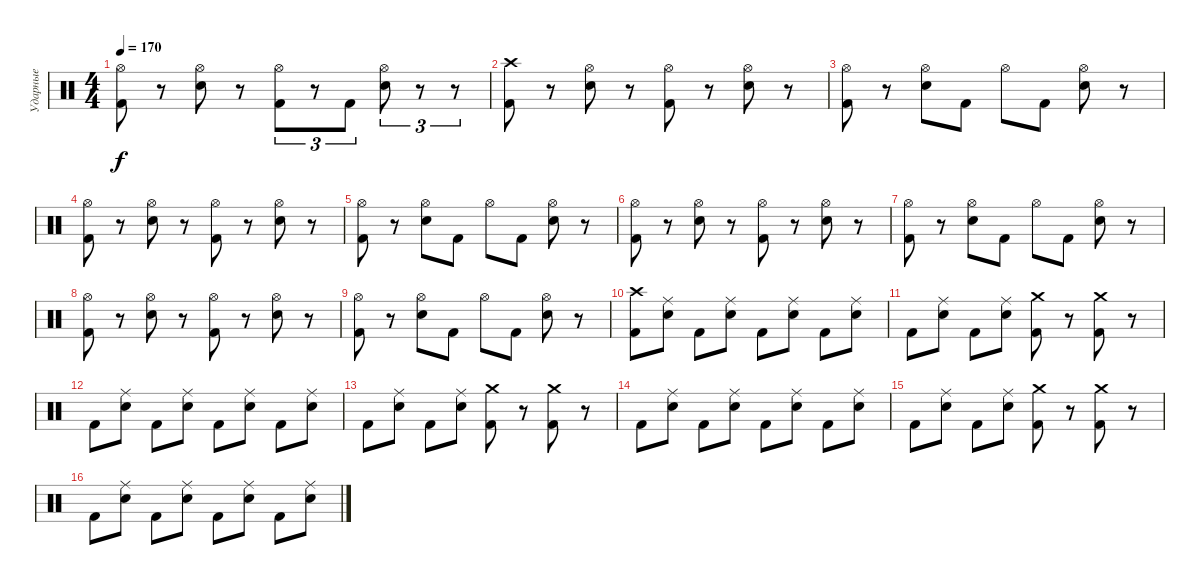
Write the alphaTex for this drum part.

\track ("Ударные" "Ударные") {instrument percussion}
\staff {score}
\articulation defaults
\ts (4 4)
\tempo 170
\clef neutral
\ks c
("Hi-Hat (open)" "Kick (hit) 2").8{dy f} r.8 ("Hi-Hat (open)" "Electric Snare (hit)").8 r.8 ("Hi-Hat (open)" "Kick (hit) 2").8{tu (3 2)} r.8{tu (3 2)} "Kick (hit) 2".8{tu (3 2)} ("Hi-Hat (open)" "Electric Snare (hit)").8{tu (3 2)} r.8{tu (3 2)} r.8{tu (3 2)} |
("Crash high (hit)" "Kick (hit) 2").8 r.8 ("Hi-Hat (open)" "Electric Snare (hit)").8 r.8 ("Hi-Hat (open)" "Kick (hit) 2").8 r.8 ("Hi-Hat (open)" "Electric Snare (hit)").8 r.8 |
("Hi-Hat (open)" "Kick (hit) 2").8 r.8 ("Hi-Hat (open)" "Electric Snare (hit)").8 "Kick (hit) 2".8 "Hi-Hat (open)".8 "Kick (hit) 2".8 ("Hi-Hat (open)" "Electric Snare (hit)").8 r.8 |
("Hi-Hat (open)" "Kick (hit) 2").8 r.8 ("Hi-Hat (open)" "Electric Snare (hit)").8 r.8 ("Hi-Hat (open)" "Kick (hit) 2").8 r.8 ("Hi-Hat (open)" "Electric Snare (hit)").8 r.8 |
("Hi-Hat (open)" "Kick (hit) 2").8 r.8 ("Hi-Hat (open)" "Electric Snare (hit)").8 "Kick (hit) 2".8 "Hi-Hat (open)".8 "Kick (hit) 2".8 ("Hi-Hat (open)" "Electric Snare (hit)").8 r.8 |
("Hi-Hat (open)" "Kick (hit) 2").8 r.8 ("Hi-Hat (open)" "Electric Snare (hit)").8 r.8 ("Hi-Hat (open)" "Kick (hit) 2").8 r.8 ("Hi-Hat (open)" "Electric Snare (hit)").8 r.8 |
("Hi-Hat (open)" "Kick (hit) 2").8 r.8 ("Hi-Hat (open)" "Electric Snare (hit)").8 "Kick (hit) 2".8 "Hi-Hat (open)".8 "Kick (hit) 2".8 ("Hi-Hat (open)" "Electric Snare (hit)").8 r.8 |
("Hi-Hat (open)" "Kick (hit) 2").8 r.8 ("Hi-Hat (open)" "Electric Snare (hit)").8 r.8 ("Hi-Hat (open)" "Kick (hit) 2").8 r.8 ("Hi-Hat (open)" "Electric Snare (hit)").8 r.8 |
("Hi-Hat (open)" "Kick (hit) 2").8 r.8 ("Hi-Hat (open)" "Electric Snare (hit)").8 "Kick (hit) 2".8 "Hi-Hat (open)".8 "Kick (hit) 2".8 ("Hi-Hat (open)" "Electric Snare (hit)").8 r.8 |
("Crash high (hit)" "Kick (hit) 2").8 ("Ride (middle)" "Electric Snare (hit)").8 "Kick (hit) 2".8 ("Ride (middle)" "Electric Snare (hit)").8 "Kick (hit) 2".8 ("Ride (middle)" "Electric Snare (hit)").8 "Kick (hit) 2".8 ("Ride (middle)" "Electric Snare (hit)").8 |
"Kick (hit) 2".8 ("Ride (middle)" "Electric Snare (hit)").8 "Kick (hit) 2".8 ("Ride (middle)" "Electric Snare (hit)").8 ("Crash medium (hit)" "Kick (hit) 2").8 r.8 ("Crash medium (hit)" "Kick (hit) 2").8 r.8 |
"Kick (hit) 2".8 ("Ride (middle)" "Electric Snare (hit)").8 "Kick (hit) 2".8 ("Ride (middle)" "Electric Snare (hit)").8 "Kick (hit) 2".8 ("Ride (middle)" "Electric Snare (hit)").8 "Kick (hit) 2".8 ("Ride (middle)" "Electric Snare (hit)").8 |
"Kick (hit) 2".8 ("Ride (middle)" "Electric Snare (hit)").8 "Kick (hit) 2".8 ("Ride (middle)" "Electric Snare (hit)").8 ("Crash medium (hit)" "Kick (hit) 2").8 r.8 ("Crash medium (hit)" "Kick (hit) 2").8 r.8 |
"Kick (hit) 2".8 ("Ride (middle)" "Electric Snare (hit)").8 "Kick (hit) 2".8 ("Ride (middle)" "Electric Snare (hit)").8 "Kick (hit) 2".8 ("Ride (middle)" "Electric Snare (hit)").8 "Kick (hit) 2".8 ("Ride (middle)" "Electric Snare (hit)").8 |
"Kick (hit) 2".8 ("Ride (middle)" "Electric Snare (hit)").8 "Kick (hit) 2".8 ("Ride (middle)" "Electric Snare (hit)").8 ("Crash medium (hit)" "Kick (hit) 2").8 r.8 ("Crash medium (hit)" "Kick (hit) 2").8 r.8 |
"Kick (hit) 2".8 ("Ride (middle)" "Electric Snare (hit)").8 "Kick (hit) 2".8 ("Ride (middle)" "Electric Snare (hit)").8 "Kick (hit) 2".8 ("Ride (middle)" "Electric Snare (hit)").8 "Kick (hit) 2".8 ("Ride (middle)" "Electric Snare (hit)").8
